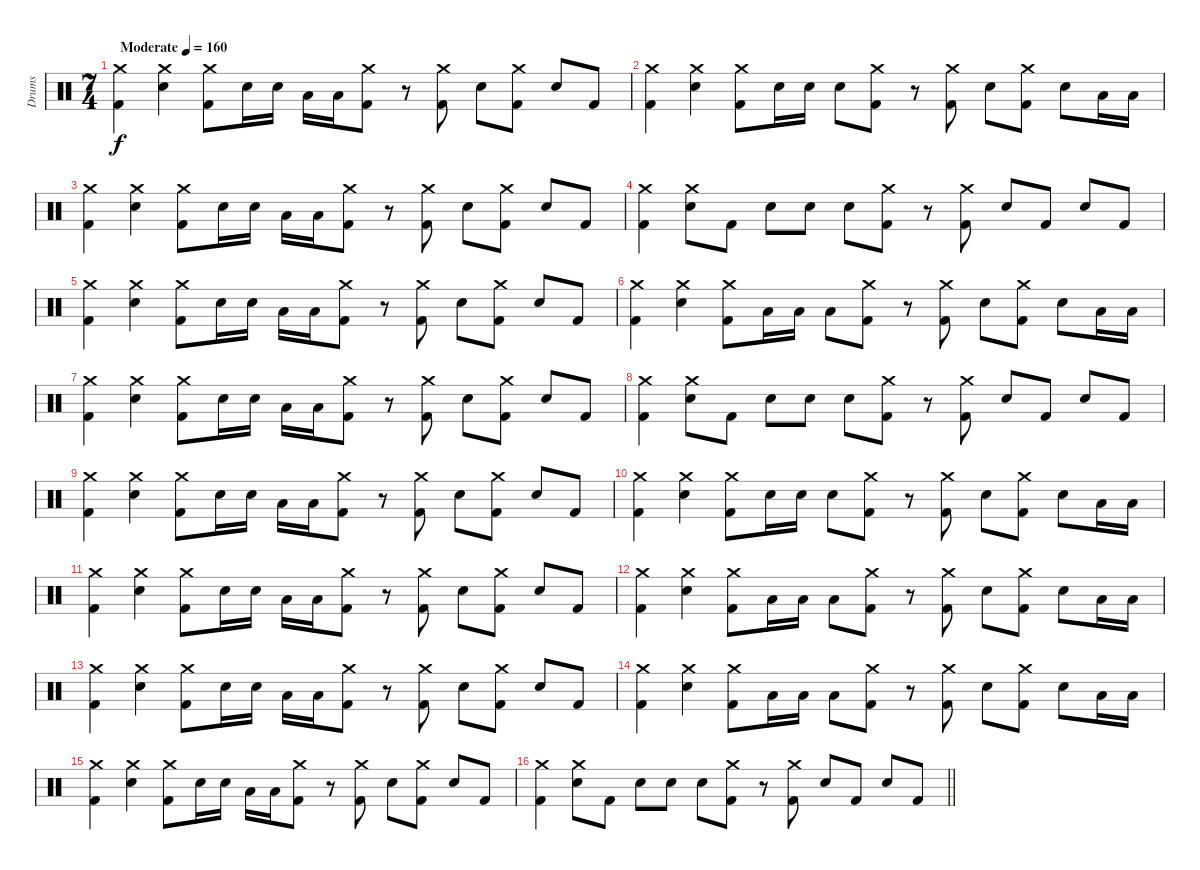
\track ("Drums" "Drums") {instrument percussion}
\staff {score}
\articulation defaults
\ts (7 4)
\tempo (160 "Moderate")
\clef neutral
\ks c
("Crash medium (hit)" "Kick (hit) 2").4{dy f} ("Crash medium (hit)" "Electric Snare (hit)").4 ("Crash medium (hit)" "Kick (hit) 2").8 "Electric Snare (hit)".16 "Electric Snare (hit)".16 "Low Tom (hit)".16 "Low Tom (hit)".16 ("Crash medium (hit)" "Kick (hit) 2").8 r.8 ("Crash medium (hit)" "Kick (hit) 2").8 "Electric Snare (hit)".8 ("Crash medium (hit)" "Kick (hit) 2").8 "Electric Snare (hit)".8 "Kick (hit) 2".8 |
("Crash medium (hit)" "Kick (hit) 2").4 ("Crash medium (hit)" "Electric Snare (hit)").4 ("Crash medium (hit)" "Kick (hit) 2").8 "Electric Snare (hit)".16 "Electric Snare (hit)".16 "Electric Snare (hit)".8 ("Crash medium (hit)" "Kick (hit) 2").8 r.8 ("Crash medium (hit)" "Kick (hit) 2").8 "Electric Snare (hit)".8 ("Crash medium (hit)" "Kick (hit) 2").8 "Electric Snare (hit)".8 "Low Floor Tom (hit)".16 "Low Floor Tom (hit)".16 |
("Crash medium (hit)" "Kick (hit) 2").4 ("Crash medium (hit)" "Electric Snare (hit)").4 ("Crash medium (hit)" "Kick (hit) 2").8 "Electric Snare (hit)".16 "Electric Snare (hit)".16 "Low Tom (hit)".16 "Low Tom (hit)".16 ("Crash medium (hit)" "Kick (hit) 2").8 r.8 ("Crash medium (hit)" "Kick (hit) 2").8 "Electric Snare (hit)".8 ("Crash medium (hit)" "Kick (hit) 2").8 "Electric Snare (hit)".8 "Kick (hit) 2".8 |
("Crash medium (hit)" "Kick (hit) 2").4 ("Crash medium (hit)" "Electric Snare (hit)").8 "Kick (hit) 2".8 "Electric Snare (hit)".8 "Electric Snare (hit)".8 "Electric Snare (hit)".8 ("Crash medium (hit)" "Kick (hit) 2").8 r.8 ("Crash medium (hit)" "Kick (hit) 2").8 "Electric Snare (hit)".8 "Kick (hit) 2".8 "Electric Snare (hit)".8 "Kick (hit) 2".8 |
("Crash medium (hit)" "Kick (hit) 2").4 ("Crash medium (hit)" "Electric Snare (hit)").4 ("Crash medium (hit)" "Kick (hit) 2").8 "Electric Snare (hit)".16 "Electric Snare (hit)".16 "Low Tom (hit)".16 "Low Tom (hit)".16 ("Crash medium (hit)" "Kick (hit) 2").8 r.8 ("Crash medium (hit)" "Kick (hit) 2").8 "Electric Snare (hit)".8 ("Crash medium (hit)" "Kick (hit) 2").8 "Electric Snare (hit)".8 "Kick (hit) 2".8 |
("Crash medium (hit)" "Kick (hit) 2").4 ("Crash medium (hit)" "Electric Snare (hit)").4 ("Crash medium (hit)" "Kick (hit) 2").8 "Low Tom (hit)".16 "Low Tom (hit)".16 "Low Tom (hit)".8 ("Crash medium (hit)" "Kick (hit) 2").8 r.8 ("Crash medium (hit)" "Kick (hit) 2").8 "Electric Snare (hit)".8 ("Crash medium (hit)" "Kick (hit) 2").8 "Electric Snare (hit)".8 "Low Floor Tom (hit)".16 "Low Floor Tom (hit)".16 |
("Crash medium (hit)" "Kick (hit) 2").4 ("Crash medium (hit)" "Electric Snare (hit)").4 ("Crash medium (hit)" "Kick (hit) 2").8 "Electric Snare (hit)".16 "Electric Snare (hit)".16 "Low Tom (hit)".16 "Low Tom (hit)".16 ("Crash medium (hit)" "Kick (hit) 2").8 r.8 ("Crash medium (hit)" "Kick (hit) 2").8 "Electric Snare (hit)".8 ("Crash medium (hit)" "Kick (hit) 2").8 "Electric Snare (hit)".8 "Kick (hit) 2".8 |
("Crash medium (hit)" "Kick (hit) 2").4 ("Crash medium (hit)" "Electric Snare (hit)").8 "Kick (hit) 2".8 "Electric Snare (hit)".8 "Electric Snare (hit)".8 "Electric Snare (hit)".8 ("Crash medium (hit)" "Kick (hit) 2").8 r.8 ("Crash medium (hit)" "Kick (hit) 2").8 "Electric Snare (hit)".8 "Kick (hit) 2".8 "Electric Snare (hit)".8 "Kick (hit) 2".8 |
("Crash medium (hit)" "Kick (hit) 2").4 ("Crash medium (hit)" "Electric Snare (hit)").4 ("Crash medium (hit)" "Kick (hit) 2").8 "Electric Snare (hit)".16 "Electric Snare (hit)".16 "Low Tom (hit)".16 "Low Tom (hit)".16 ("Crash medium (hit)" "Kick (hit) 2").8 r.8 ("Crash medium (hit)" "Kick (hit) 2").8 "Electric Snare (hit)".8 ("Crash medium (hit)" "Kick (hit) 2").8 "Electric Snare (hit)".8 "Kick (hit) 2".8 |
("Crash medium (hit)" "Kick (hit) 2").4 ("Crash medium (hit)" "Electric Snare (hit)").4 ("Crash medium (hit)" "Kick (hit) 2").8 "Electric Snare (hit)".16 "Electric Snare (hit)".16 "Electric Snare (hit)".8 ("Crash medium (hit)" "Kick (hit) 2").8 r.8 ("Crash medium (hit)" "Kick (hit) 2").8 "Electric Snare (hit)".8 ("Crash medium (hit)" "Kick (hit) 2").8 "Electric Snare (hit)".8 "Low Floor Tom (hit)".16 "Low Floor Tom (hit)".16 |
("Crash medium (hit)" "Kick (hit) 2").4 ("Crash medium (hit)" "Electric Snare (hit)").4 ("Crash medium (hit)" "Kick (hit) 2").8 "Electric Snare (hit)".16 "Electric Snare (hit)".16 "Low Tom (hit)".16 "Low Tom (hit)".16 ("Crash medium (hit)" "Kick (hit) 2").8 r.8 ("Crash medium (hit)" "Kick (hit) 2").8 "Electric Snare (hit)".8 ("Crash medium (hit)" "Kick (hit) 2").8 "Electric Snare (hit)".8 "Kick (hit) 2".8 |
("Crash medium (hit)" "Kick (hit) 2").4 ("Crash medium (hit)" "Electric Snare (hit)").4 ("Crash medium (hit)" "Kick (hit) 2").8 "Low Tom (hit)".16 "Low Tom (hit)".16 "Low Tom (hit)".8 ("Crash medium (hit)" "Kick (hit) 2").8 r.8 ("Crash medium (hit)" "Kick (hit) 2").8 "Electric Snare (hit)".8 ("Crash medium (hit)" "Kick (hit) 2").8 "Electric Snare (hit)".8 "Low Floor Tom (hit)".16 "Low Floor Tom (hit)".16 |
("Crash medium (hit)" "Kick (hit) 2").4 ("Crash medium (hit)" "Electric Snare (hit)").4 ("Crash medium (hit)" "Kick (hit) 2").8 "Electric Snare (hit)".16 "Electric Snare (hit)".16 "Low Tom (hit)".16 "Low Tom (hit)".16 ("Crash medium (hit)" "Kick (hit) 2").8 r.8 ("Crash medium (hit)" "Kick (hit) 2").8 "Electric Snare (hit)".8 ("Crash medium (hit)" "Kick (hit) 2").8 "Electric Snare (hit)".8 "Kick (hit) 2".8 |
("Crash medium (hit)" "Kick (hit) 2").4 ("Crash medium (hit)" "Electric Snare (hit)").4 ("Crash medium (hit)" "Kick (hit) 2").8 "Low Tom (hit)".16 "Low Tom (hit)".16 "Low Tom (hit)".8 ("Crash medium (hit)" "Kick (hit) 2").8 r.8 ("Crash medium (hit)" "Kick (hit) 2").8 "Electric Snare (hit)".8 ("Crash medium (hit)" "Kick (hit) 2").8 "Electric Snare (hit)".8 "Low Floor Tom (hit)".16 "Low Floor Tom (hit)".16 |
("Crash medium (hit)" "Kick (hit) 2").4 ("Crash medium (hit)" "Electric Snare (hit)").4 ("Crash medium (hit)" "Kick (hit) 2").8 "Electric Snare (hit)".16 "Electric Snare (hit)".16 "Low Tom (hit)".16 "Low Tom (hit)".16 ("Crash medium (hit)" "Kick (hit) 2").8 r.8 ("Crash medium (hit)" "Kick (hit) 2").8 "Electric Snare (hit)".8 ("Crash medium (hit)" "Kick (hit) 2").8 "Electric Snare (hit)".8 "Kick (hit) 2".8 |
\barLineRight lightlight
("Crash medium (hit)" "Kick (hit) 2").4 ("Crash medium (hit)" "Electric Snare (hit)").8 "Kick (hit) 2".8 "Electric Snare (hit)".8 "Electric Snare (hit)".8 "Electric Snare (hit)".8 ("Crash medium (hit)" "Kick (hit) 2").8 r.8 ("Crash medium (hit)" "Kick (hit) 2").8 "Electric Snare (hit)".8 "Kick (hit) 2".8 "Electric Snare (hit)".8 "Kick (hit) 2".8
